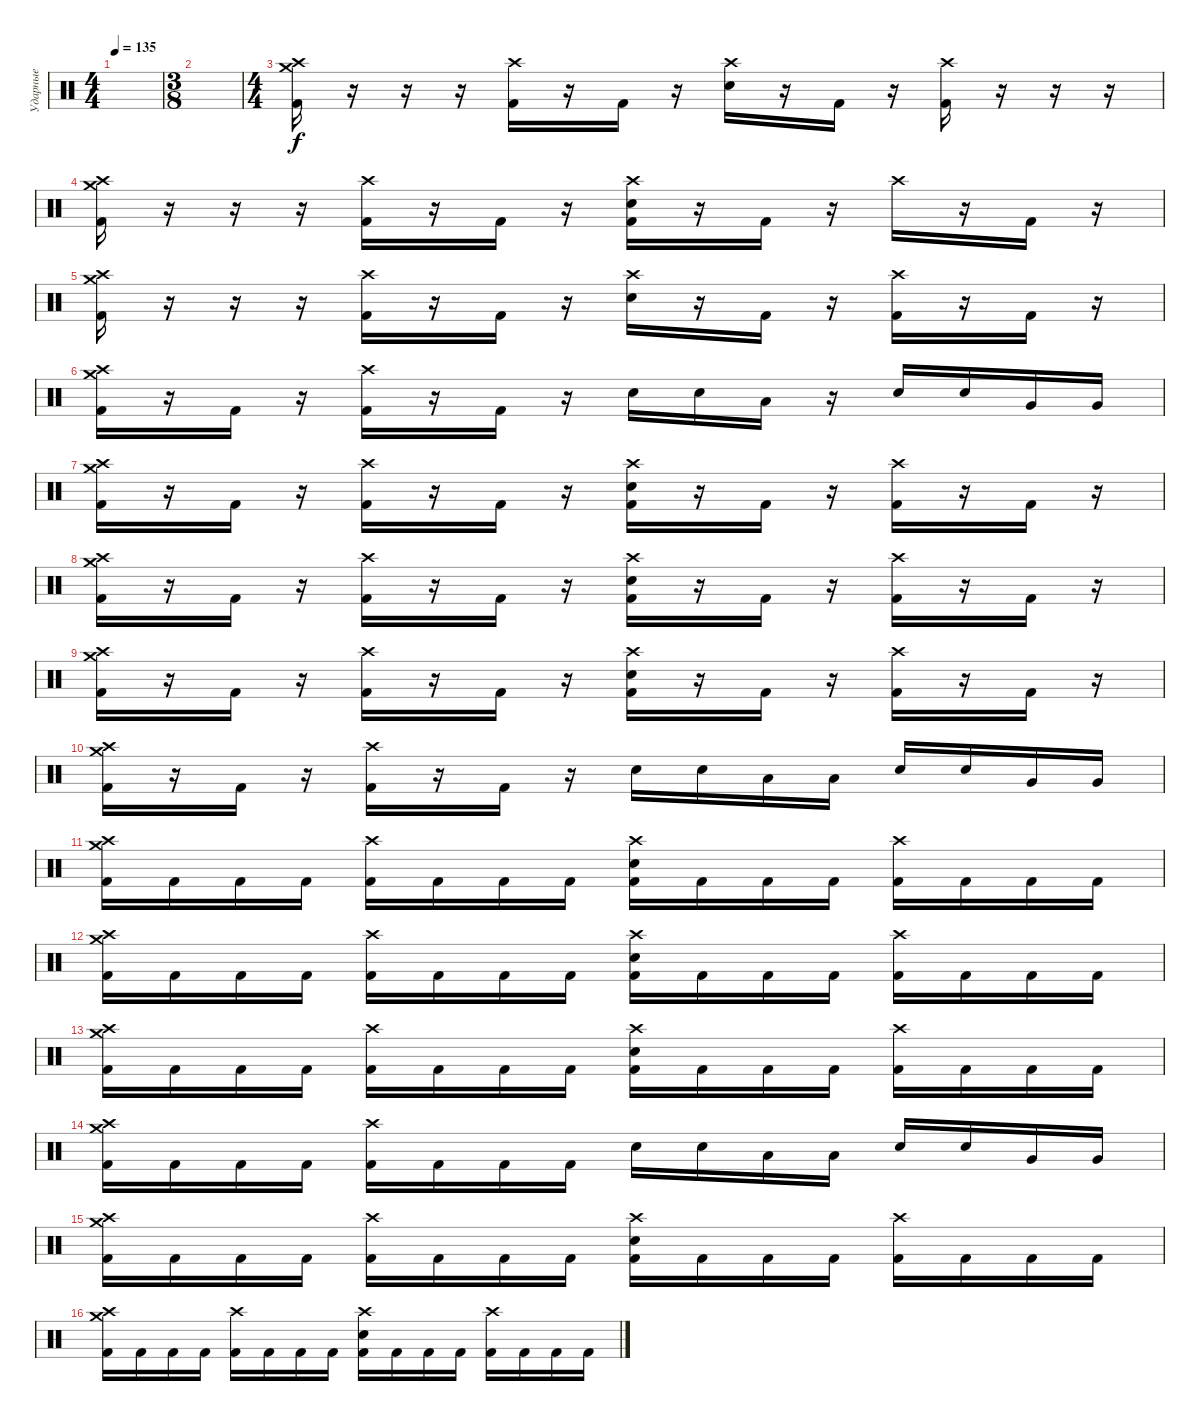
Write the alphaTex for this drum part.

\track ("Ударные" "Ударные") {instrument percussion}
\staff {score}
\articulation defaults
\ts (4 4)
\tempo 135
\clef neutral
\ks c
|
\ts (3 8)
|
\ts (4 4)
("Crash high (hit)" "Crash medium (hit)" "Kick (hit) 2").16 r.16 r.16 r.16 ("Crash high (hit)" "Kick (hit) 2").16 r.16 "Kick (hit) 2".16 r.16 ("Crash high (hit)" "Electric Snare (hit)").16 r.16 "Kick (hit) 2".16 r.16 ("Crash high (hit)" "Kick (hit) 2").16 r.16 r.16 r.16 |
("Crash high (hit)" "Crash medium (hit)" "Kick (hit) 2").16 r.16 r.16 r.16 ("Crash high (hit)" "Kick (hit) 2").16 r.16 "Kick (hit) 2".16 r.16 ("Crash high (hit)" "Electric Snare (hit)" "Kick (hit) 2").16 r.16 "Kick (hit) 2".16 r.16 "Crash high (hit)".16 r.16 "Kick (hit) 2".16 r.16 |
("Crash high (hit)" "Crash medium (hit)" "Kick (hit) 2").16 r.16 r.16 r.16 ("Crash high (hit)" "Kick (hit) 2").16 r.16 "Kick (hit) 2".16 r.16 ("Crash high (hit)" "Electric Snare (hit)").16 r.16 "Kick (hit) 2".16 r.16 ("Crash high (hit)" "Kick (hit) 2").16 r.16 "Kick (hit) 2".16 r.16 |
("Crash high (hit)" "Crash medium (hit)" "Kick (hit) 2").16 r.16 "Kick (hit) 2".16 r.16 ("Crash high (hit)" "Kick (hit) 2").16 r.16 "Kick (hit) 2".16 r.16 "Electric Snare (hit)".16 "Electric Snare (hit)".16 "Low Tom (hit)".16 r.16 "Electric Snare (hit)".16 "Electric Snare (hit)".16 "Very Low Tom (hit)".16 "Very Low Tom (hit)".16 |
("Crash high (hit)" "Crash medium (hit)" "Kick (hit) 2").16 r.16 "Kick (hit) 2".16 r.16 ("Crash high (hit)" "Kick (hit) 2").16 r.16 "Kick (hit) 2".16 r.16 ("Crash high (hit)" "Electric Snare (hit)" "Kick (hit) 2").16 r.16 "Kick (hit) 2".16 r.16 ("Crash high (hit)" "Kick (hit) 2").16 r.16 "Kick (hit) 2".16 r.16 |
("Crash high (hit)" "Crash medium (hit)" "Kick (hit) 2").16 r.16 "Kick (hit) 2".16 r.16 ("Crash high (hit)" "Kick (hit) 2").16 r.16 "Kick (hit) 2".16 r.16 ("Crash high (hit)" "Electric Snare (hit)" "Kick (hit) 2").16 r.16 "Kick (hit) 2".16 r.16 ("Crash high (hit)" "Kick (hit) 2").16 r.16 "Kick (hit) 2".16 r.16 |
("Crash high (hit)" "Crash medium (hit)" "Kick (hit) 2").16 r.16 "Kick (hit) 2".16 r.16 ("Crash high (hit)" "Kick (hit) 2").16 r.16 "Kick (hit) 2".16 r.16 ("Crash high (hit)" "Electric Snare (hit)" "Kick (hit) 2").16 r.16 "Kick (hit) 2".16 r.16 ("Crash high (hit)" "Kick (hit) 2").16 r.16 "Kick (hit) 2".16 r.16 |
("Crash high (hit)" "Crash medium (hit)" "Kick (hit) 2").16 r.16 "Kick (hit) 2".16 r.16 ("Crash high (hit)" "Kick (hit) 2").16 r.16 "Kick (hit) 2".16 r.16 "Electric Snare (hit)".16 "Electric Snare (hit)".16 "Low Tom (hit)".16 "Low Tom (hit)".16 "Electric Snare (hit)".16 "Electric Snare (hit)".16 "Very Low Tom (hit)".16 "Very Low Tom (hit)".16 |
("Crash high (hit)" "Crash medium (hit)" "Kick (hit) 2").16 "Kick (hit) 2".16 "Kick (hit) 2".16 "Kick (hit) 2".16 ("Crash high (hit)" "Kick (hit) 2").16 "Kick (hit) 2".16 "Kick (hit) 2".16 "Kick (hit) 2".16 ("Crash high (hit)" "Electric Snare (hit)" "Kick (hit) 2").16 "Kick (hit) 2".16 "Kick (hit) 2".16 "Kick (hit) 2".16 ("Crash high (hit)" "Kick (hit) 2").16 "Kick (hit) 2".16 "Kick (hit) 2".16 "Kick (hit) 2".16 |
("Crash high (hit)" "Crash medium (hit)" "Kick (hit) 2").16 "Kick (hit) 2".16 "Kick (hit) 2".16 "Kick (hit) 2".16 ("Crash high (hit)" "Kick (hit) 2").16 "Kick (hit) 2".16 "Kick (hit) 2".16 "Kick (hit) 2".16 ("Crash high (hit)" "Electric Snare (hit)" "Kick (hit) 2").16 "Kick (hit) 2".16 "Kick (hit) 2".16 "Kick (hit) 2".16 ("Crash high (hit)" "Kick (hit) 2").16 "Kick (hit) 2".16 "Kick (hit) 2".16 "Kick (hit) 2".16 |
("Crash high (hit)" "Crash medium (hit)" "Kick (hit) 2").16 "Kick (hit) 2".16 "Kick (hit) 2".16 "Kick (hit) 2".16 ("Crash high (hit)" "Kick (hit) 2").16 "Kick (hit) 2".16 "Kick (hit) 2".16 "Kick (hit) 2".16 ("Crash high (hit)" "Electric Snare (hit)" "Kick (hit) 2").16 "Kick (hit) 2".16 "Kick (hit) 2".16 "Kick (hit) 2".16 ("Crash high (hit)" "Kick (hit) 2").16 "Kick (hit) 2".16 "Kick (hit) 2".16 "Kick (hit) 2".16 |
("Crash high (hit)" "Crash medium (hit)" "Kick (hit) 2").16 "Kick (hit) 2".16 "Kick (hit) 2".16 "Kick (hit) 2".16 ("Crash high (hit)" "Kick (hit) 2").16 "Kick (hit) 2".16 "Kick (hit) 2".16 "Kick (hit) 2".16 "Electric Snare (hit)".16 "Electric Snare (hit)".16 "Low Tom (hit)".16 "Low Tom (hit)".16 "Electric Snare (hit)".16 "Electric Snare (hit)".16 "Very Low Tom (hit)".16 "Very Low Tom (hit)".16 |
("Crash high (hit)" "Crash medium (hit)" "Kick (hit) 2").16 "Kick (hit) 2".16 "Kick (hit) 2".16 "Kick (hit) 2".16 ("Crash high (hit)" "Kick (hit) 2").16 "Kick (hit) 2".16 "Kick (hit) 2".16 "Kick (hit) 2".16 ("Crash high (hit)" "Electric Snare (hit)" "Kick (hit) 2").16 "Kick (hit) 2".16 "Kick (hit) 2".16 "Kick (hit) 2".16 ("Crash high (hit)" "Kick (hit) 2").16 "Kick (hit) 2".16 "Kick (hit) 2".16 "Kick (hit) 2".16 |
("Crash high (hit)" "Crash medium (hit)" "Kick (hit) 2").16 "Kick (hit) 2".16 "Kick (hit) 2".16 "Kick (hit) 2".16 ("Crash high (hit)" "Kick (hit) 2").16 "Kick (hit) 2".16 "Kick (hit) 2".16 "Kick (hit) 2".16 ("Crash high (hit)" "Electric Snare (hit)" "Kick (hit) 2").16 "Kick (hit) 2".16 "Kick (hit) 2".16 "Kick (hit) 2".16 ("Crash high (hit)" "Kick (hit) 2").16 "Kick (hit) 2".16 "Kick (hit) 2".16 "Kick (hit) 2".16
